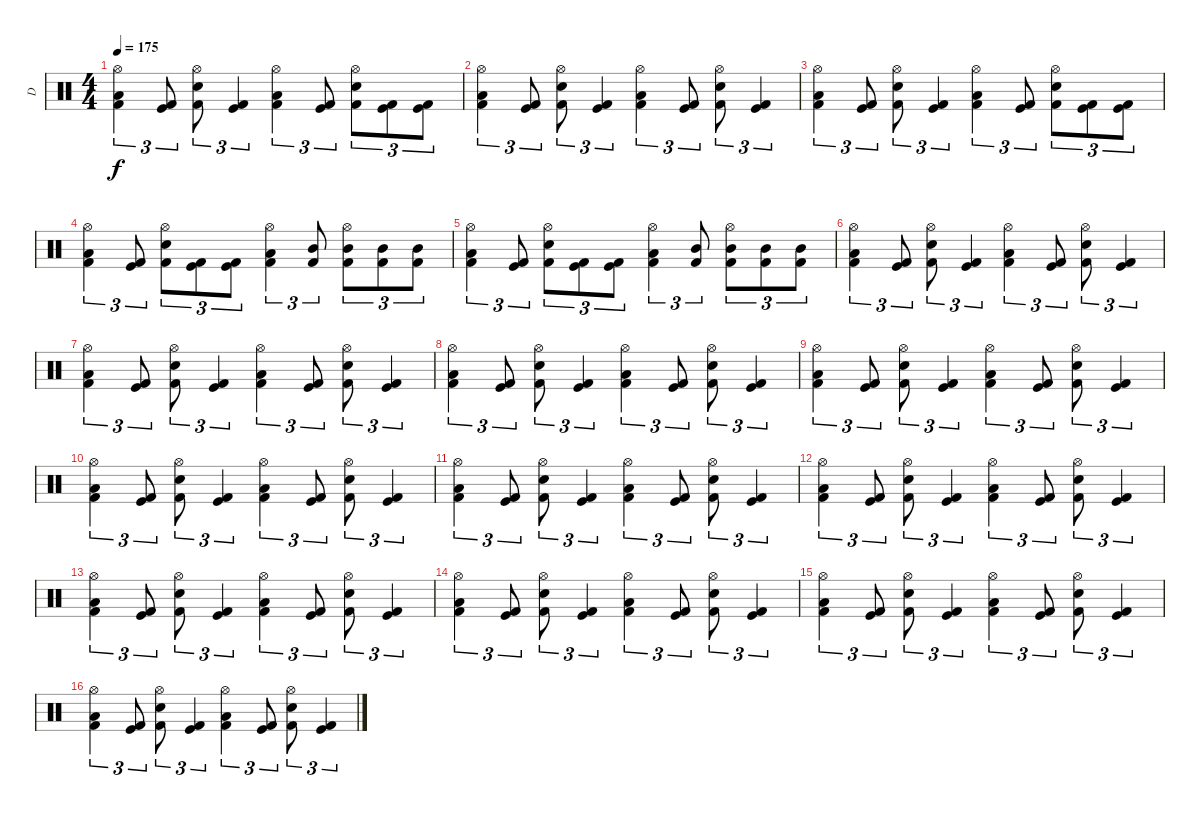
\track ("D" "D") {instrument percussion}
\staff {score}
\articulation defaults
\ts (4 4)
\tempo 175
\clef neutral
\ks c
("Hi-Hat (open)" "Low Floor Tom (hit)" "Kick (hit) 2").4{tu (3 2) dy f} ("Kick (hit)" "Kick (hit) 2").8{tu (3 2)} ("Hi-Hat (open)" "Electric Snare (hit)" "Kick (hit) 2").8{tu (3 2)} ("Kick (hit)" "Kick (hit) 2").4{tu (3 2)} ("Hi-Hat (open)" "Low Floor Tom (hit)" "Kick (hit) 2").4{tu (3 2)} ("Kick (hit)" "Kick (hit) 2").8{tu (3 2)} ("Hi-Hat (open)" "Snare (hit) 2" "Kick (hit) 2").8{tu (3 2)} ("Kick (hit)" "Kick (hit) 2").8{tu (3 2)} ("Kick (hit)" "Kick (hit) 2").8{tu (3 2)} |
("Hi-Hat (open)" "Low Floor Tom (hit)" "Kick (hit) 2").4{tu (3 2)} ("Kick (hit)" "Kick (hit) 2").8{tu (3 2)} ("Hi-Hat (open)" "Electric Snare (hit)" "Kick (hit) 2").8{tu (3 2)} ("Kick (hit)" "Kick (hit) 2").4{tu (3 2)} ("Hi-Hat (open)" "Low Floor Tom (hit)" "Kick (hit) 2").4{tu (3 2)} ("Kick (hit)" "Kick (hit) 2").8{tu (3 2)} ("Hi-Hat (open)" "Electric Snare (hit)" "Kick (hit) 2").8{tu (3 2)} ("Kick (hit)" "Kick (hit) 2").4{tu (3 2)} |
("Hi-Hat (open)" "Low Floor Tom (hit)" "Kick (hit) 2").4{tu (3 2)} ("Kick (hit)" "Kick (hit) 2").8{tu (3 2)} ("Hi-Hat (open)" "Electric Snare (hit)" "Kick (hit) 2").8{tu (3 2)} ("Kick (hit)" "Kick (hit) 2").4{tu (3 2)} ("Hi-Hat (open)" "Low Floor Tom (hit)" "Kick (hit) 2").4{tu (3 2)} ("Kick (hit)" "Kick (hit) 2").8{tu (3 2)} ("Hi-Hat (open)" "Snare (hit) 2" "Kick (hit) 2").8{tu (3 2)} ("Kick (hit)" "Kick (hit) 2").8{tu (3 2)} ("Kick (hit)" "Kick (hit) 2").8{tu (3 2)} |
("Hi-Hat (open)" "Low Floor Tom (hit)" "Kick (hit) 2").4{tu (3 2)} ("Kick (hit)" "Kick (hit) 2").8{tu (3 2)} ("Hi-Hat (open)" "Electric Snare (hit)" "Kick (hit) 2").8{tu (3 2)} ("Kick (hit)" "Kick (hit) 2").8{tu (3 2)} ("Kick (hit)" "Kick (hit) 2").8{tu (3 2)} ("Hi-Hat (open)" "Low Floor Tom (hit)" "Kick (hit) 2").4{tu (3 2)} ("Mid Tom (hit)" "Kick (hit) 2").8{tu (3 2)} ("Hi-Hat (open)" "Mid Tom (hit)" "Kick (hit) 2").8{tu (3 2)} ("Mid Tom (hit)" "Kick (hit) 2").8{tu (3 2)} ("Mid Tom (hit)" "Kick (hit) 2").8{tu (3 2)} |
("Hi-Hat (open)" "Low Floor Tom (hit)" "Kick (hit) 2").4{tu (3 2)} ("Kick (hit)" "Kick (hit) 2").8{tu (3 2)} ("Hi-Hat (open)" "Electric Snare (hit)" "Kick (hit) 2").8{tu (3 2)} ("Kick (hit)" "Kick (hit) 2").8{tu (3 2)} ("Kick (hit)" "Kick (hit) 2").8{tu (3 2)} ("Hi-Hat (open)" "Low Floor Tom (hit)" "Kick (hit) 2").4{tu (3 2)} ("Mid Tom (hit)" "Kick (hit) 2").8{tu (3 2)} ("Hi-Hat (open)" "Mid Tom (hit)" "Kick (hit) 2").8{tu (3 2)} ("Mid Tom (hit)" "Kick (hit) 2").8{tu (3 2)} ("Mid Tom (hit)" "Kick (hit) 2").8{tu (3 2)} |
("Hi-Hat (open)" "Low Floor Tom (hit)" "Kick (hit) 2").4{tu (3 2)} ("Kick (hit)" "Kick (hit) 2").8{tu (3 2)} ("Hi-Hat (open)" "Electric Snare (hit)" "Kick (hit) 2").8{tu (3 2)} ("Kick (hit)" "Kick (hit) 2").4{tu (3 2)} ("Hi-Hat (open)" "Low Floor Tom (hit)" "Kick (hit) 2").4{tu (3 2)} ("Kick (hit)" "Kick (hit) 2").8{tu (3 2)} ("Hi-Hat (open)" "Electric Snare (hit)" "Kick (hit) 2").8{tu (3 2)} ("Kick (hit)" "Kick (hit) 2").4{tu (3 2)} |
("Hi-Hat (open)" "Low Floor Tom (hit)" "Kick (hit) 2").4{tu (3 2)} ("Kick (hit)" "Kick (hit) 2").8{tu (3 2)} ("Hi-Hat (open)" "Electric Snare (hit)" "Kick (hit) 2").8{tu (3 2)} ("Kick (hit)" "Kick (hit) 2").4{tu (3 2)} ("Hi-Hat (open)" "Low Floor Tom (hit)" "Kick (hit) 2").4{tu (3 2)} ("Kick (hit)" "Kick (hit) 2").8{tu (3 2)} ("Hi-Hat (open)" "Electric Snare (hit)" "Kick (hit) 2").8{tu (3 2)} ("Kick (hit)" "Kick (hit) 2").4{tu (3 2)} |
("Hi-Hat (open)" "Low Floor Tom (hit)" "Kick (hit) 2").4{tu (3 2)} ("Kick (hit)" "Kick (hit) 2").8{tu (3 2)} ("Hi-Hat (open)" "Electric Snare (hit)" "Kick (hit) 2").8{tu (3 2)} ("Kick (hit)" "Kick (hit) 2").4{tu (3 2)} ("Hi-Hat (open)" "Low Floor Tom (hit)" "Kick (hit) 2").4{tu (3 2)} ("Kick (hit)" "Kick (hit) 2").8{tu (3 2)} ("Hi-Hat (open)" "Electric Snare (hit)" "Kick (hit) 2").8{tu (3 2)} ("Kick (hit)" "Kick (hit) 2").4{tu (3 2)} |
("Hi-Hat (open)" "Low Floor Tom (hit)" "Kick (hit) 2").4{tu (3 2)} ("Kick (hit)" "Kick (hit) 2").8{tu (3 2)} ("Hi-Hat (open)" "Electric Snare (hit)" "Kick (hit) 2").8{tu (3 2)} ("Kick (hit)" "Kick (hit) 2").4{tu (3 2)} ("Hi-Hat (open)" "Low Floor Tom (hit)" "Kick (hit) 2").4{tu (3 2)} ("Kick (hit)" "Kick (hit) 2").8{tu (3 2)} ("Hi-Hat (open)" "Electric Snare (hit)" "Kick (hit) 2").8{tu (3 2)} ("Kick (hit)" "Kick (hit) 2").4{tu (3 2)} |
("Hi-Hat (open)" "Low Floor Tom (hit)" "Kick (hit) 2").4{tu (3 2)} ("Kick (hit)" "Kick (hit) 2").8{tu (3 2)} ("Hi-Hat (open)" "Electric Snare (hit)" "Kick (hit) 2").8{tu (3 2)} ("Kick (hit)" "Kick (hit) 2").4{tu (3 2)} ("Hi-Hat (open)" "Low Floor Tom (hit)" "Kick (hit) 2").4{tu (3 2)} ("Kick (hit)" "Kick (hit) 2").8{tu (3 2)} ("Hi-Hat (open)" "Electric Snare (hit)" "Kick (hit) 2").8{tu (3 2)} ("Kick (hit)" "Kick (hit) 2").4{tu (3 2)} |
("Hi-Hat (open)" "Low Floor Tom (hit)" "Kick (hit) 2").4{tu (3 2)} ("Kick (hit)" "Kick (hit) 2").8{tu (3 2)} ("Hi-Hat (open)" "Electric Snare (hit)" "Kick (hit) 2").8{tu (3 2)} ("Kick (hit)" "Kick (hit) 2").4{tu (3 2)} ("Hi-Hat (open)" "Low Floor Tom (hit)" "Kick (hit) 2").4{tu (3 2)} ("Kick (hit)" "Kick (hit) 2").8{tu (3 2)} ("Hi-Hat (open)" "Electric Snare (hit)" "Kick (hit) 2").8{tu (3 2)} ("Kick (hit)" "Kick (hit) 2").4{tu (3 2)} |
("Hi-Hat (open)" "Low Floor Tom (hit)" "Kick (hit) 2").4{tu (3 2)} ("Kick (hit)" "Kick (hit) 2").8{tu (3 2)} ("Hi-Hat (open)" "Electric Snare (hit)" "Kick (hit) 2").8{tu (3 2)} ("Kick (hit)" "Kick (hit) 2").4{tu (3 2)} ("Hi-Hat (open)" "Low Floor Tom (hit)" "Kick (hit) 2").4{tu (3 2)} ("Kick (hit)" "Kick (hit) 2").8{tu (3 2)} ("Hi-Hat (open)" "Electric Snare (hit)" "Kick (hit) 2").8{tu (3 2)} ("Kick (hit)" "Kick (hit) 2").4{tu (3 2)} |
("Hi-Hat (open)" "Low Floor Tom (hit)" "Kick (hit) 2").4{tu (3 2)} ("Kick (hit)" "Kick (hit) 2").8{tu (3 2)} ("Hi-Hat (open)" "Electric Snare (hit)" "Kick (hit) 2").8{tu (3 2)} ("Kick (hit)" "Kick (hit) 2").4{tu (3 2)} ("Hi-Hat (open)" "Low Floor Tom (hit)" "Kick (hit) 2").4{tu (3 2)} ("Kick (hit)" "Kick (hit) 2").8{tu (3 2)} ("Hi-Hat (open)" "Electric Snare (hit)" "Kick (hit) 2").8{tu (3 2)} ("Kick (hit)" "Kick (hit) 2").4{tu (3 2)} |
("Hi-Hat (open)" "Low Floor Tom (hit)" "Kick (hit) 2").4{tu (3 2)} ("Kick (hit)" "Kick (hit) 2").8{tu (3 2)} ("Hi-Hat (open)" "Electric Snare (hit)" "Kick (hit) 2").8{tu (3 2)} ("Kick (hit)" "Kick (hit) 2").4{tu (3 2)} ("Hi-Hat (open)" "Low Floor Tom (hit)" "Kick (hit) 2").4{tu (3 2)} ("Kick (hit)" "Kick (hit) 2").8{tu (3 2)} ("Hi-Hat (open)" "Electric Snare (hit)" "Kick (hit) 2").8{tu (3 2)} ("Kick (hit)" "Kick (hit) 2").4{tu (3 2)} |
("Hi-Hat (open)" "Low Floor Tom (hit)" "Kick (hit) 2").4{tu (3 2)} ("Kick (hit)" "Kick (hit) 2").8{tu (3 2)} ("Hi-Hat (open)" "Electric Snare (hit)" "Kick (hit) 2").8{tu (3 2)} ("Kick (hit)" "Kick (hit) 2").4{tu (3 2)} ("Hi-Hat (open)" "Low Floor Tom (hit)" "Kick (hit) 2").4{tu (3 2)} ("Kick (hit)" "Kick (hit) 2").8{tu (3 2)} ("Hi-Hat (open)" "Electric Snare (hit)" "Kick (hit) 2").8{tu (3 2)} ("Kick (hit)" "Kick (hit) 2").4{tu (3 2)} |
("Hi-Hat (open)" "Low Floor Tom (hit)" "Kick (hit) 2").4{tu (3 2)} ("Kick (hit)" "Kick (hit) 2").8{tu (3 2)} ("Hi-Hat (open)" "Electric Snare (hit)" "Kick (hit) 2").8{tu (3 2)} ("Kick (hit)" "Kick (hit) 2").4{tu (3 2)} ("Hi-Hat (open)" "Low Floor Tom (hit)" "Kick (hit) 2").4{tu (3 2)} ("Kick (hit)" "Kick (hit) 2").8{tu (3 2)} ("Hi-Hat (open)" "Electric Snare (hit)" "Kick (hit) 2").8{tu (3 2)} ("Kick (hit)" "Kick (hit) 2").4{tu (3 2)}
